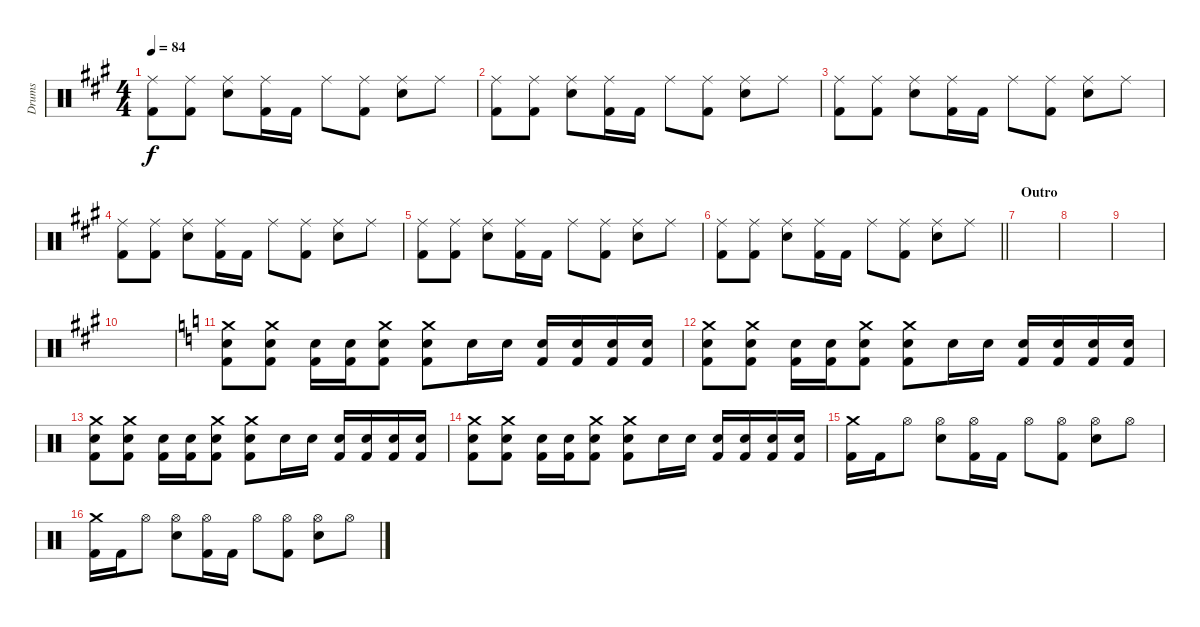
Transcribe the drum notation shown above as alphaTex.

\track ("Drums" "Drums") {instrument percussion}
\staff {score}
\articulation defaults
\ts (4 4)
\tempo 84
\clef neutral
\ks a
("Ride (middle)" "Kick (hit) 2").8{dy f} ("Ride (middle)" "Kick (hit) 2").8 ("Ride (middle)" "Electric Snare (hit)").8 ("Ride (middle)" "Kick (hit) 2").16 "Kick (hit) 2".16 "Ride (middle)".8 ("Ride (middle)" "Kick (hit) 2").8 ("Ride (middle)" "Electric Snare (hit)").8 "Ride (middle)".8 |
("Ride (middle)" "Kick (hit) 2").8 ("Ride (middle)" "Kick (hit) 2").8 ("Ride (middle)" "Electric Snare (hit)").8 ("Ride (middle)" "Kick (hit) 2").16 "Kick (hit) 2".16 "Ride (middle)".8 ("Ride (middle)" "Kick (hit) 2").8 ("Ride (middle)" "Electric Snare (hit)").8 "Ride (middle)".8 |
("Ride (middle)" "Kick (hit) 2").8 ("Ride (middle)" "Kick (hit) 2").8 ("Ride (middle)" "Electric Snare (hit)").8 ("Ride (middle)" "Kick (hit) 2").16 "Kick (hit) 2".16 "Ride (middle)".8 ("Ride (middle)" "Kick (hit) 2").8 ("Ride (middle)" "Electric Snare (hit)").8 "Ride (middle)".8 |
("Ride (middle)" "Kick (hit) 2").8 ("Ride (middle)" "Kick (hit) 2").8 ("Ride (middle)" "Electric Snare (hit)").8 ("Ride (middle)" "Kick (hit) 2").16 "Kick (hit) 2".16 "Ride (middle)".8 ("Ride (middle)" "Kick (hit) 2").8 ("Ride (middle)" "Electric Snare (hit)").8 "Ride (middle)".8 |
("Ride (middle)" "Kick (hit) 2").8 ("Ride (middle)" "Kick (hit) 2").8 ("Ride (middle)" "Electric Snare (hit)").8 ("Ride (middle)" "Kick (hit) 2").16 "Kick (hit) 2".16 "Ride (middle)".8 ("Ride (middle)" "Kick (hit) 2").8 ("Ride (middle)" "Electric Snare (hit)").8 "Ride (middle)".8 |
\barLineRight lightlight
("Ride (middle)" "Kick (hit) 2").8 ("Ride (middle)" "Kick (hit) 2").8 ("Ride (middle)" "Electric Snare (hit)").8 ("Ride (middle)" "Kick (hit) 2").16 "Kick (hit) 2".16 "Ride (middle)".8 ("Ride (middle)" "Kick (hit) 2").8 ("Ride (middle)" "Electric Snare (hit)").8 "Ride (middle)".8 |
\section ("" "Outro")
|
|
|
|
\ks c
("Crash medium (hit)" "Electric Snare (hit)" "Kick (hit) 2").8 ("Crash medium (hit)" "Electric Snare (hit)" "Kick (hit) 2").8 ("Electric Snare (hit)" "Kick (hit) 2").16 ("Electric Snare (hit)" "Kick (hit) 2").16 ("Crash medium (hit)" "Electric Snare (hit)" "Kick (hit) 2").8 ("Crash medium (hit)" "Electric Snare (hit)" "Kick (hit) 2").8 "Electric Snare (hit)".16 "Electric Snare (hit)".16 ("Electric Snare (hit)" "Kick (hit) 2").16 ("Electric Snare (hit)" "Kick (hit) 2").16 ("Electric Snare (hit)" "Kick (hit) 2").16 ("Electric Snare (hit)" "Kick (hit) 2").16 |
("Crash medium (hit)" "Electric Snare (hit)" "Kick (hit) 2").8 ("Crash medium (hit)" "Electric Snare (hit)" "Kick (hit) 2").8 ("Electric Snare (hit)" "Kick (hit) 2").16 ("Electric Snare (hit)" "Kick (hit) 2").16 ("Crash medium (hit)" "Electric Snare (hit)" "Kick (hit) 2").8 ("Crash medium (hit)" "Electric Snare (hit)" "Kick (hit) 2").8 "Electric Snare (hit)".16 "Electric Snare (hit)".16 ("Electric Snare (hit)" "Kick (hit) 2").16 ("Electric Snare (hit)" "Kick (hit) 2").16 ("Electric Snare (hit)" "Kick (hit) 2").16 ("Electric Snare (hit)" "Kick (hit) 2").16 |
("Crash medium (hit)" "Electric Snare (hit)" "Kick (hit) 2").8 ("Crash medium (hit)" "Electric Snare (hit)" "Kick (hit) 2").8 ("Electric Snare (hit)" "Kick (hit) 2").16 ("Electric Snare (hit)" "Kick (hit) 2").16 ("Crash medium (hit)" "Electric Snare (hit)" "Kick (hit) 2").8 ("Crash medium (hit)" "Electric Snare (hit)" "Kick (hit) 2").8 "Electric Snare (hit)".16 "Electric Snare (hit)".16 ("Electric Snare (hit)" "Kick (hit) 2").16 ("Electric Snare (hit)" "Kick (hit) 2").16 ("Electric Snare (hit)" "Kick (hit) 2").16 ("Electric Snare (hit)" "Kick (hit) 2").16 |
("Crash medium (hit)" "Electric Snare (hit)" "Kick (hit) 2").8 ("Crash medium (hit)" "Electric Snare (hit)" "Kick (hit) 2").8 ("Electric Snare (hit)" "Kick (hit) 2").16 ("Electric Snare (hit)" "Kick (hit) 2").16 ("Crash medium (hit)" "Electric Snare (hit)" "Kick (hit) 2").8 ("Crash medium (hit)" "Electric Snare (hit)" "Kick (hit) 2").8 "Electric Snare (hit)".16 "Electric Snare (hit)".16 ("Electric Snare (hit)" "Kick (hit) 2").16 ("Electric Snare (hit)" "Kick (hit) 2").16 ("Electric Snare (hit)" "Kick (hit) 2").16 ("Electric Snare (hit)" "Kick (hit) 2").16 |
("Crash medium (hit)" "Kick (hit) 2").16 "Kick (hit) 2".16 "Hi-Hat (open)".8 ("Hi-Hat (open)" "Electric Snare (hit)").8 ("Hi-Hat (open)" "Kick (hit) 2").16 "Kick (hit) 2".16 "Hi-Hat (open)".8 ("Hi-Hat (open)" "Kick (hit) 2").8 ("Hi-Hat (open)" "Electric Snare (hit)").8 "Hi-Hat (open)".8 |
("Crash medium (hit)" "Kick (hit) 2").16 "Kick (hit) 2".16 "Hi-Hat (open)".8 ("Hi-Hat (open)" "Electric Snare (hit)").8 ("Hi-Hat (open)" "Kick (hit) 2").16 "Kick (hit) 2".16 "Hi-Hat (open)".8 ("Hi-Hat (open)" "Kick (hit) 2").8 ("Hi-Hat (open)" "Electric Snare (hit)").8 "Hi-Hat (open)".8
